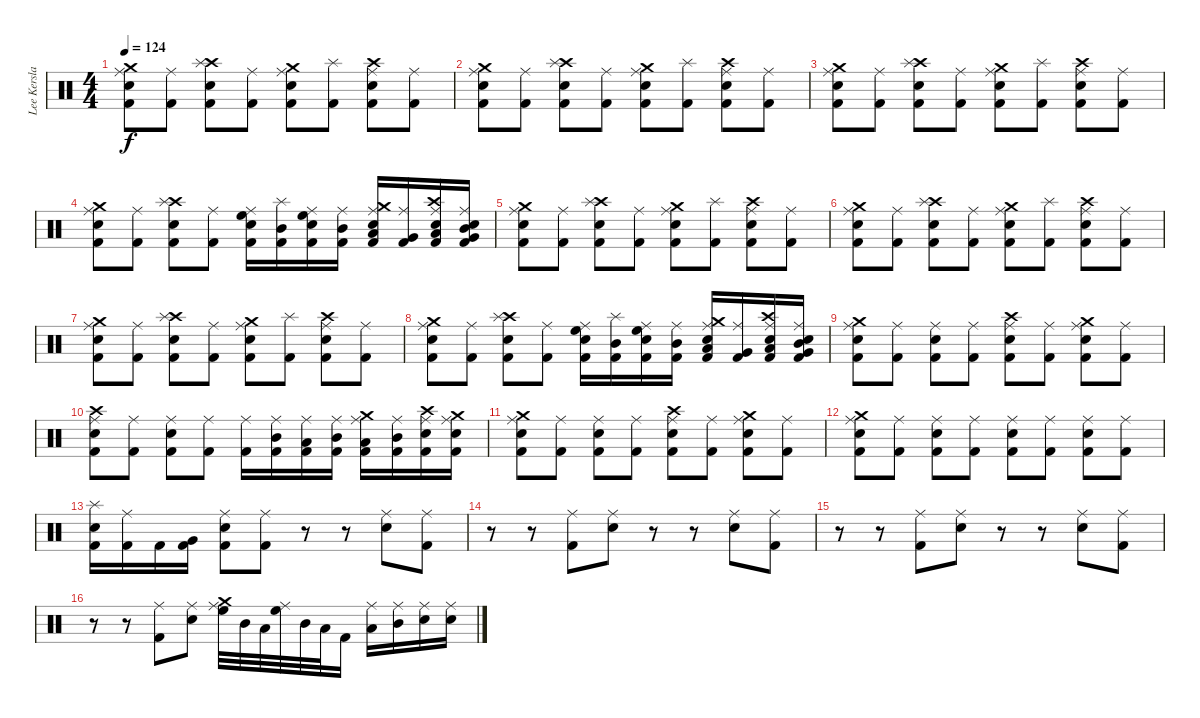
\track ("Lee Kerslake" "Lee Kersla") {instrument percussion}
\staff {score}
\articulation defaults
\ts (4 4)
\tempo 124
\clef neutral
\ks c
("Kick (hit) 2" "Electric Snare (hit)" "Crash medium (hit)" "Ride (middle)").8{dy f} ("Kick (hit) 2" "Ride (middle)").8 ("Kick (hit) 2" "Electric Snare (hit)" "Crash high (hit)" "Splash (hit)").8 ("Kick (hit) 2" "Ride (middle)").8 ("Kick (hit) 2" "Electric Snare (hit)" "Crash medium (hit)" "Ride (middle)").8 ("Kick (hit) 2" "Splash (hit)").8 ("Kick (hit) 2" "Electric Snare (hit)" "Crash high (hit)" "Ride (middle)").8 ("Kick (hit) 2" "Ride (middle)").8 |
("Kick (hit) 2" "Electric Snare (hit)" "Crash medium (hit)" "Ride (middle)").8 ("Kick (hit) 2" "Ride (middle)").8 ("Kick (hit) 2" "Electric Snare (hit)" "Crash high (hit)" "Splash (hit)").8 ("Kick (hit) 2" "Ride (middle)").8 ("Kick (hit) 2" "Electric Snare (hit)" "Crash medium (hit)" "Ride (middle)").8 ("Kick (hit) 2" "Splash (hit)").8 ("Kick (hit) 2" "Electric Snare (hit)" "Crash high (hit)" "Ride (middle)").8 ("Kick (hit) 2" "Ride (middle)").8 |
("Kick (hit) 2" "Electric Snare (hit)" "Crash medium (hit)" "Ride (middle)").8 ("Kick (hit) 2" "Ride (middle)").8 ("Kick (hit) 2" "Electric Snare (hit)" "Crash high (hit)" "Splash (hit)").8 ("Kick (hit) 2" "Ride (middle)").8 ("Kick (hit) 2" "Electric Snare (hit)" "Crash medium (hit)" "Ride (middle)").8 ("Kick (hit) 2" "Splash (hit)").8 ("Kick (hit) 2" "Electric Snare (hit)" "Crash high (hit)" "Ride (middle)").8 ("Kick (hit) 2" "Ride (middle)").8 |
("Kick (hit) 2" "Electric Snare (hit)" "Crash medium (hit)" "Ride (middle)").8 ("Kick (hit) 2" "Ride (middle)").8 ("Kick (hit) 2" "Electric Snare (hit)" "Crash high (hit)" "Splash (hit)").8 ("Kick (hit) 2" "Ride (middle)").8 ("Kick (hit) 2" "Electric Snare (hit)" "High Floor Tom (hit)" "Ride (middle)").16 ("Kick (hit) 2" "Mid Tom (hit)" "Splash (hit)").16 ("Kick (hit) 2" "Electric Snare (hit)" "High Floor Tom (hit)" "Ride (middle)").16 ("Kick (hit) 2" "Mid Tom (hit)" "Ride (middle)").16 ("Kick (hit) 2" "Electric Snare (hit)" "Low Tom (hit)" "Crash medium (hit)" "Ride (middle)").16 ("Kick (hit) 2" "Very Low Tom (hit)" "Ride (middle)").16 ("Kick (hit) 2" "Electric Snare (hit)" "Low Tom (hit)" "Crash high (hit)" "Ride (middle)").16 ("Kick (hit) 2" "Electric Snare (hit)" "Very Low Tom (hit)" "Mid Tom (hit)" "Ride (middle)").16 |
("Kick (hit) 2" "Electric Snare (hit)" "Crash medium (hit)" "Ride (middle)").8 ("Kick (hit) 2" "Ride (middle)").8 ("Kick (hit) 2" "Electric Snare (hit)" "Crash high (hit)" "Splash (hit)").8 ("Kick (hit) 2" "Ride (middle)").8 ("Kick (hit) 2" "Electric Snare (hit)" "Crash medium (hit)" "Ride (middle)").8 ("Kick (hit) 2" "Splash (hit)").8 ("Kick (hit) 2" "Electric Snare (hit)" "Crash high (hit)" "Ride (middle)").8 ("Kick (hit) 2" "Ride (middle)").8 |
("Kick (hit) 2" "Electric Snare (hit)" "Crash medium (hit)" "Ride (middle)").8 ("Kick (hit) 2" "Ride (middle)").8 ("Kick (hit) 2" "Electric Snare (hit)" "Crash high (hit)" "Splash (hit)").8 ("Kick (hit) 2" "Ride (middle)").8 ("Kick (hit) 2" "Electric Snare (hit)" "Crash medium (hit)" "Ride (middle)").8 ("Kick (hit) 2" "Splash (hit)").8 ("Kick (hit) 2" "Electric Snare (hit)" "Crash high (hit)" "Ride (middle)").8 ("Kick (hit) 2" "Ride (middle)").8 |
("Kick (hit) 2" "Electric Snare (hit)" "Crash medium (hit)" "Ride (middle)").8 ("Kick (hit) 2" "Ride (middle)").8 ("Kick (hit) 2" "Electric Snare (hit)" "Crash high (hit)" "Splash (hit)").8 ("Kick (hit) 2" "Ride (middle)").8 ("Kick (hit) 2" "Electric Snare (hit)" "Crash medium (hit)" "Ride (middle)").8 ("Kick (hit) 2" "Splash (hit)").8 ("Kick (hit) 2" "Electric Snare (hit)" "Crash high (hit)" "Ride (middle)").8 ("Kick (hit) 2" "Ride (middle)").8 |
("Kick (hit) 2" "Electric Snare (hit)" "Crash medium (hit)" "Ride (middle)").8 ("Kick (hit) 2" "Ride (middle)").8 ("Kick (hit) 2" "Electric Snare (hit)" "Crash high (hit)" "Splash (hit)").8 ("Kick (hit) 2" "Ride (middle)").8 ("Kick (hit) 2" "Electric Snare (hit)" "High Floor Tom (hit)" "Ride (middle)").16 ("Kick (hit) 2" "Mid Tom (hit)" "Splash (hit)").16 ("Kick (hit) 2" "Electric Snare (hit)" "High Floor Tom (hit)" "Ride (middle)").16 ("Kick (hit) 2" "Mid Tom (hit)" "Ride (middle)").16 ("Kick (hit) 2" "Electric Snare (hit)" "Low Tom (hit)" "Crash medium (hit)" "Ride (middle)").16 ("Kick (hit) 2" "Very Low Tom (hit)" "Ride (middle)").16 ("Kick (hit) 2" "Electric Snare (hit)" "Low Tom (hit)" "Crash high (hit)" "Ride (middle)").16 ("Kick (hit) 2" "Electric Snare (hit)" "Very Low Tom (hit)" "Mid Tom (hit)" "Ride (middle)").16 |
("Kick (hit) 2" "Electric Snare (hit)" "Crash medium (hit)" "Ride (middle)").8 ("Kick (hit) 2" "Ride (middle)").8 ("Kick (hit) 2" "Electric Snare (hit)" "Ride (middle)").8 ("Kick (hit) 2" "Ride (middle)").8 ("Kick (hit) 2" "Electric Snare (hit)" "Crash high (hit)" "Ride (middle)").8 ("Kick (hit) 2" "Ride (middle)").8 ("Kick (hit) 2" "Electric Snare (hit)" "Crash medium (hit)" "Ride (middle)").8 ("Kick (hit) 2" "Ride (middle)").8 |
("Kick (hit) 2" "Electric Snare (hit)" "Crash high (hit)" "Ride (middle)").8 ("Kick (hit) 2" "Ride (middle)").8 ("Kick (hit) 2" "Electric Snare (hit)" "Ride (middle)").8 ("Kick (hit) 2" "Ride (middle)").8 ("Kick (hit) 2" "Ride (middle)").16 ("Kick (hit) 2" "Mid Tom (hit)" "Ride (middle)").16 ("Low Tom (hit)" "Kick (hit) 2" "Ride (middle)").16 ("Kick (hit) 2" "Mid Tom (hit)" "Ride (middle)").16 ("Kick (hit) 2" "Low Tom (hit)" "Crash medium (hit)" "Ride (middle)").16 ("Kick (hit) 2" "Mid Tom (hit)" "Ride (middle)").16 ("Kick (hit) 2" "Electric Snare (hit)" "Crash high (hit)" "Ride (middle)").16 ("Kick (hit) 2" "Electric Snare (hit)" "Crash medium (hit)" "Ride (middle)").16 |
("Kick (hit) 2" "Electric Snare (hit)" "Crash medium (hit)" "Ride (middle)").8 ("Kick (hit) 2" "Ride (middle)").8 ("Kick (hit) 2" "Electric Snare (hit)" "Ride (middle)").8 ("Kick (hit) 2" "Ride (middle)").8 ("Kick (hit) 2" "Electric Snare (hit)" "Crash high (hit)" "Ride (middle)").8 ("Kick (hit) 2" "Ride (middle)").8 ("Kick (hit) 2" "Electric Snare (hit)" "Crash medium (hit)" "Ride (middle)").8 ("Kick (hit) 2" "Ride (middle)").8 |
("Kick (hit) 2" "Electric Snare (hit)" "Crash medium (hit)" "Ride (middle)").8 ("Kick (hit) 2" "Ride (middle)").8 ("Kick (hit) 2" "Electric Snare (hit)" "Ride (middle)").8 ("Kick (hit) 2" "Ride (middle)").8 ("Kick (hit) 2" "Electric Snare (hit)" "Ride (middle)").8 ("Kick (hit) 2" "Ride (middle)").8 ("Kick (hit) 2" "Electric Snare (hit)" "Ride (middle)").8 ("Kick (hit) 2" "Ride (middle)").8 |
("Kick (hit) 2" "Electric Snare (hit)" "Splash (hit)").16 ("Kick (hit) 2" "Ride (middle)").16 "Kick (hit) 2".16 ("Kick (hit) 2" "Very Low Tom (hit)").16 ("Kick (hit) 2" "Electric Snare (hit)" "Ride (middle)").8 ("Kick (hit) 2" "Ride (middle)").8 r.8 r.8 ("Electric Snare (hit)" "Ride (middle)").8 ("Kick (hit) 2" "Ride (middle)").8 |
r.8 r.8 ("Kick (hit) 2" "Ride (middle)").8 ("Electric Snare (hit)" "Ride (middle)").8 r.8 r.8 ("Electric Snare (hit)" "Ride (middle)").8 ("Kick (hit) 2" "Ride (middle)").8 |
r.8 r.8 ("Kick (hit) 2" "Ride (middle)").8 ("Electric Snare (hit)" "Ride (middle)").8 r.8 r.8 ("Electric Snare (hit)" "Ride (middle)").8 ("Kick (hit) 2" "Ride (middle)").8 |
r.8 r.8 ("Kick (hit) 2" "Ride (middle)").8 ("Electric Snare (hit)" "Ride (middle)").8 ("High Floor Tom (hit)" "Crash medium (hit)" "Ride (middle)").32 "Mid Tom (hit)".32 "Low Tom (hit)".32 ("High Floor Tom (hit)" "Ride (middle)").32 "Mid Tom (hit)".32 "Low Tom (hit)".32 "Kick (hit) 2".16 ("Low Tom (hit)" "Ride (middle)").16 ("Mid Tom (hit)" "Ride (middle)").16 ("Electric Snare (hit)" "Ride (middle)").16 ("Electric Snare (hit)" "Ride (middle)").16
